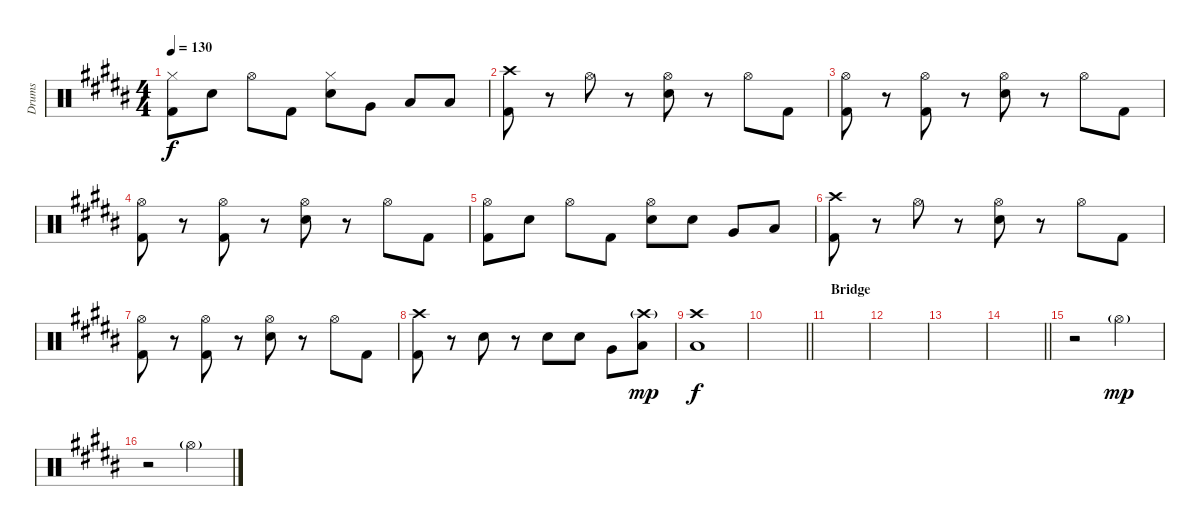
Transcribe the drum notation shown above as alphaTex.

\track ("Drums" "Drums") {instrument percussion}
\staff {score}
\articulation defaults
\ts (4 4)
\tempo 130
\clef neutral
\ks b
("Hi-Hat (closed)" "Kick (hit) 2").8{dy f} "Electric Snare (hit)".8 "Hi-Hat (open)".8 "Kick (hit) 2".8 ("Hi-Hat (closed)" "Electric Snare (hit)").8 "Very Low Tom (hit)".8 "Low Floor Tom (hit)".8 "Low Floor Tom (hit)".8 |
("Crash high (hit)" "Kick (hit) 2").8 r.8 "Hi-Hat (open)".8 r.8 ("Hi-Hat (open)" "Electric Snare (hit)").8 r.8 "Hi-Hat (open)".8 "Kick (hit) 2".8 |
("Hi-Hat (open)" "Kick (hit) 2").8 r.8 ("Hi-Hat (open)" "Kick (hit) 2").8 r.8 ("Hi-Hat (open)" "Electric Snare (hit)").8 r.8 "Hi-Hat (open)".8 "Kick (hit) 2".8 |
("Hi-Hat (open)" "Kick (hit) 2").8 r.8 ("Hi-Hat (open)" "Kick (hit) 2").8 r.8 ("Hi-Hat (open)" "Electric Snare (hit)").8 r.8 "Hi-Hat (open)".8 "Kick (hit) 2".8 |
("Hi-Hat (open)" "Kick (hit) 2").8 "Electric Snare (hit)".8 "Hi-Hat (open)".8 "Kick (hit) 2".8 ("Hi-Hat (open)" "Electric Snare (hit)").8 "Electric Snare (hit)".8 "Very Low Tom (hit)".8 "Low Floor Tom (hit)".8 |
("Crash high (hit)" "Kick (hit) 2").8 r.8 "Hi-Hat (open)".8 r.8 ("Hi-Hat (open)" "Electric Snare (hit)").8 r.8 "Hi-Hat (open)".8 "Kick (hit) 2".8 |
("Hi-Hat (open)" "Kick (hit) 2").8 r.8 ("Hi-Hat (open)" "Kick (hit) 2").8 r.8 ("Hi-Hat (open)" "Electric Snare (hit)").8 r.8 "Hi-Hat (open)".8 "Kick (hit) 2".8 |
("Crash high (hit)" "Kick (hit) 2").8 r.8 "Electric Snare (hit)".8 r.8 "Electric Snare (hit)".8 "Electric Snare (hit)".8 "Very Low Tom (hit)".8 ("Crash high (hit)"{g} "Low Floor Tom (hit)").8{dy mp} |
("Crash high (hit)" "Low Floor Tom (hit)").1{dy f} |
\barLineRight lightlight
|
\section ("" "Bridge")
|
|
|
\barLineRight lightlight
|
r.2 "Hi-Hat (open)"{g}.2{dy mp} |
r.2 "Hi-Hat (open)"{g}.2
